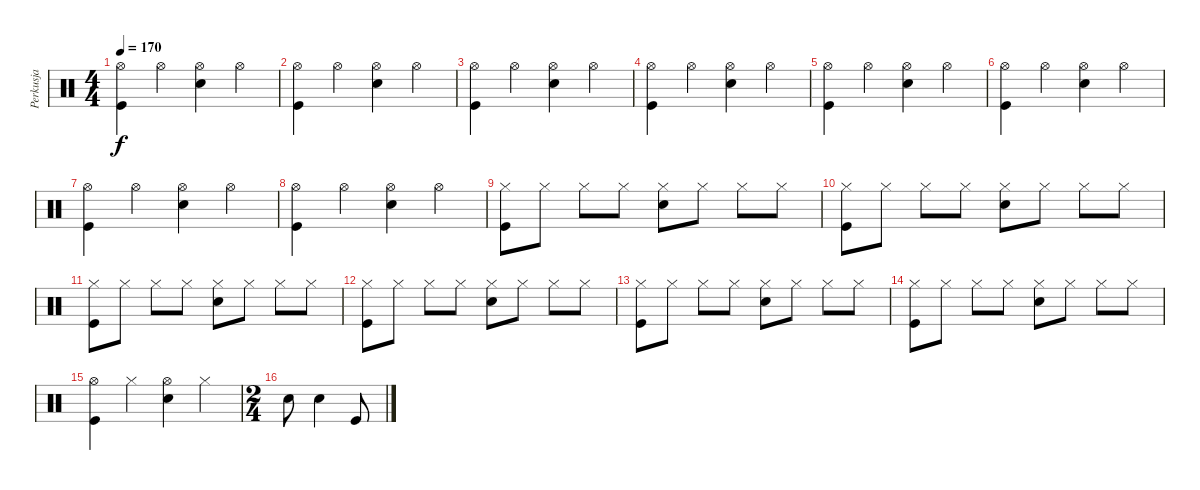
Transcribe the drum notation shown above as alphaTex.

\track ("Perkusja" "Perkusja") {instrument percussion}
\staff {score}
\articulation defaults
\ts (4 4)
\tempo 170
\clef neutral
\ks c
("Hi-Hat (open)" "Kick (hit)").4{dy f} "Hi-Hat (open)".4 ("Hi-Hat (open)" "Electric Snare (hit)").4 "Hi-Hat (open)".4 |
("Hi-Hat (open)" "Kick (hit)").4 "Hi-Hat (open)".4 ("Hi-Hat (open)" "Electric Snare (hit)").4 "Hi-Hat (open)".4 |
("Hi-Hat (open)" "Kick (hit)").4 "Hi-Hat (open)".4 ("Hi-Hat (open)" "Electric Snare (hit)").4 "Hi-Hat (open)".4 |
("Hi-Hat (open)" "Kick (hit)").4 "Hi-Hat (open)".4 ("Hi-Hat (open)" "Electric Snare (hit)").4 "Hi-Hat (open)".4 |
("Hi-Hat (open)" "Kick (hit)").4 "Hi-Hat (open)".4 ("Hi-Hat (open)" "Electric Snare (hit)").4 "Hi-Hat (open)".4 |
("Hi-Hat (open)" "Kick (hit)").4 "Hi-Hat (open)".4 ("Hi-Hat (open)" "Electric Snare (hit)").4 "Hi-Hat (open)".4 |
("Hi-Hat (open)" "Kick (hit)").4 "Hi-Hat (open)".4 ("Hi-Hat (open)" "Electric Snare (hit)").4 "Hi-Hat (open)".4 |
("Hi-Hat (open)" "Kick (hit)").4 "Hi-Hat (open)".4 ("Hi-Hat (open)" "Electric Snare (hit)").4 "Hi-Hat (open)".4 |
("Hi-Hat (closed)" "Kick (hit)").8 "Hi-Hat (closed)".8 "Hi-Hat (closed)".8 "Hi-Hat (closed)".8 ("Hi-Hat (closed)" "Electric Snare (hit)").8 "Hi-Hat (closed)".8 "Hi-Hat (closed)".8 "Hi-Hat (closed)".8 |
("Hi-Hat (closed)" "Kick (hit)").8 "Hi-Hat (closed)".8 "Hi-Hat (closed)".8 "Hi-Hat (closed)".8 ("Hi-Hat (closed)" "Electric Snare (hit)").8 "Hi-Hat (closed)".8 "Hi-Hat (closed)".8 "Hi-Hat (closed)".8 |
("Hi-Hat (closed)" "Kick (hit)").8 "Hi-Hat (closed)".8 "Hi-Hat (closed)".8 "Hi-Hat (closed)".8 ("Hi-Hat (closed)" "Electric Snare (hit)").8 "Hi-Hat (closed)".8 "Hi-Hat (closed)".8 "Hi-Hat (closed)".8 |
("Hi-Hat (closed)" "Kick (hit)").8 "Hi-Hat (closed)".8 "Hi-Hat (closed)".8 "Hi-Hat (closed)".8 ("Hi-Hat (closed)" "Electric Snare (hit)").8 "Hi-Hat (closed)".8 "Hi-Hat (closed)".8 "Hi-Hat (closed)".8 |
("Hi-Hat (closed)" "Kick (hit)").8 "Hi-Hat (closed)".8 "Hi-Hat (closed)".8 "Hi-Hat (closed)".8 ("Hi-Hat (closed)" "Electric Snare (hit)").8 "Hi-Hat (closed)".8 "Hi-Hat (closed)".8 "Hi-Hat (closed)".8 |
("Hi-Hat (closed)" "Kick (hit)").8 "Hi-Hat (closed)".8 "Hi-Hat (closed)".8 "Hi-Hat (closed)".8 ("Hi-Hat (closed)" "Electric Snare (hit)").8 "Hi-Hat (closed)".8 "Hi-Hat (closed)".8 "Hi-Hat (closed)".8 |
("Hi-Hat (open)" "Kick (hit)").4 "Hi-Hat (closed)".4 ("Hi-Hat (open)" "Electric Snare (hit)").4 "Hi-Hat (closed)".4 |
\ts (2 4)
"Electric Snare (hit)".8 "Electric Snare (hit)".4 "Kick (hit)".8
